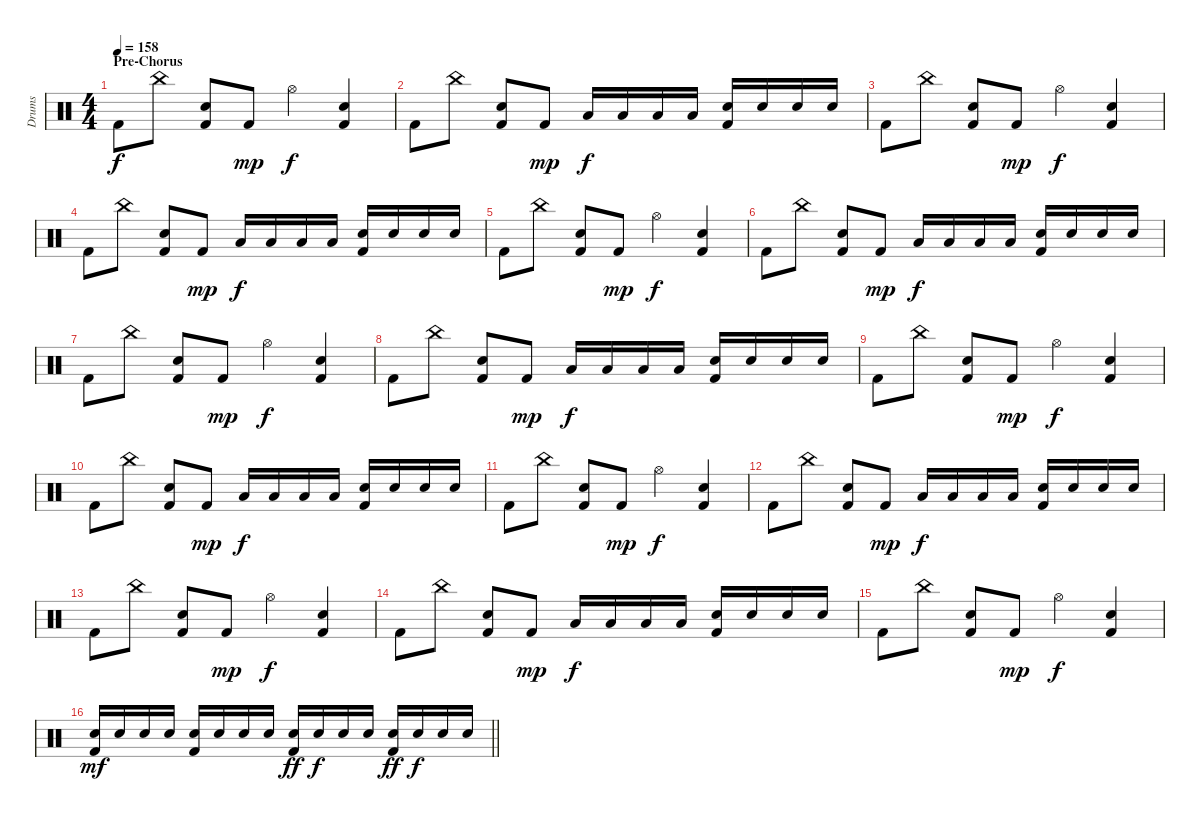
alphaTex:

\track ("Drums" "Drums") {instrument percussion}
\staff {score}
\articulation defaults
\ts (4 4)
\section ("" "Pre-Chorus")
\tempo 158
\clef neutral
\ks c "Kick (hit) 2".8{dy f} "China (hit)".8
("Electric Snare (hit)" "Kick (hit) 2").8 "Kick (hit) 2".8{dy mp} "Hi-Hat (open)".4{dy f} ("Electric Snare (hit)" "Kick (hit) 2").4 |
"Kick (hit) 2".8 "China (hit)".8 ("Electric Snare (hit)" "Kick (hit) 2").8 "Kick (hit) 2".8{dy mp} "Low Tom (hit)".16{dy f} "Low Tom (hit)".16 "Low Tom (hit)".16 "Low Tom (hit)".16 ("Electric Snare (hit)" "Kick (hit) 2").16 "Electric Snare (hit)".16 "Electric Snare (hit)".16 "Electric Snare (hit)".16 |
"Kick (hit) 2".8 "China (hit)".8 ("Electric Snare (hit)" "Kick (hit) 2").8 "Kick (hit) 2".8{dy mp} "Hi-Hat (open)".4{dy f} ("Electric Snare (hit)" "Kick (hit) 2").4 |
"Kick (hit) 2".8 "China (hit)".8 ("Electric Snare (hit)" "Kick (hit) 2").8 "Kick (hit) 2".8{dy mp} "Low Tom (hit)".16{dy f} "Low Tom (hit)".16 "Low Tom (hit)".16 "Low Tom (hit)".16 ("Electric Snare (hit)" "Kick (hit) 2").16 "Electric Snare (hit)".16 "Electric Snare (hit)".16 "Electric Snare (hit)".16 |
"Kick (hit) 2".8 "China (hit)".8 ("Electric Snare (hit)" "Kick (hit) 2").8 "Kick (hit) 2".8{dy mp} "Hi-Hat (open)".4{dy f} ("Electric Snare (hit)" "Kick (hit) 2").4 |
"Kick (hit) 2".8 "China (hit)".8 ("Electric Snare (hit)" "Kick (hit) 2").8 "Kick (hit) 2".8{dy mp} "Low Tom (hit)".16{dy f} "Low Tom (hit)".16 "Low Tom (hit)".16 "Low Tom (hit)".16 ("Electric Snare (hit)" "Kick (hit) 2").16 "Electric Snare (hit)".16 "Electric Snare (hit)".16 "Electric Snare (hit)".16 |
"Kick (hit) 2".8 "China (hit)".8 ("Electric Snare (hit)" "Kick (hit) 2").8 "Kick (hit) 2".8{dy mp} "Hi-Hat (open)".4{dy f} ("Electric Snare (hit)" "Kick (hit) 2").4 |
"Kick (hit) 2".8 "China (hit)".8 ("Electric Snare (hit)" "Kick (hit) 2").8 "Kick (hit) 2".8{dy mp} "Low Tom (hit)".16{dy f} "Low Tom (hit)".16 "Low Tom (hit)".16 "Low Tom (hit)".16 ("Electric Snare (hit)" "Kick (hit) 2").16 "Electric Snare (hit)".16 "Electric Snare (hit)".16 "Electric Snare (hit)".16 |
"Kick (hit) 2".8 "China (hit)".8 ("Electric Snare (hit)" "Kick (hit) 2").8 "Kick (hit) 2".8{dy mp} "Hi-Hat (open)".4{dy f} ("Electric Snare (hit)" "Kick (hit) 2").4 |
"Kick (hit) 2".8 "China (hit)".8 ("Electric Snare (hit)" "Kick (hit) 2").8 "Kick (hit) 2".8{dy mp} "Low Tom (hit)".16{dy f} "Low Tom (hit)".16 "Low Tom (hit)".16 "Low Tom (hit)".16 ("Electric Snare (hit)" "Kick (hit) 2").16 "Electric Snare (hit)".16 "Electric Snare (hit)".16 "Electric Snare (hit)".16 |
"Kick (hit) 2".8 "China (hit)".8 ("Electric Snare (hit)" "Kick (hit) 2").8 "Kick (hit) 2".8{dy mp} "Hi-Hat (open)".4{dy f} ("Electric Snare (hit)" "Kick (hit) 2").4 |
"Kick (hit) 2".8 "China (hit)".8 ("Electric Snare (hit)" "Kick (hit) 2").8 "Kick (hit) 2".8{dy mp} "Low Tom (hit)".16{dy f} "Low Tom (hit)".16 "Low Tom (hit)".16 "Low Tom (hit)".16 ("Electric Snare (hit)" "Kick (hit) 2").16 "Electric Snare (hit)".16 "Electric Snare (hit)".16 "Electric Snare (hit)".16 |
"Kick (hit) 2".8 "China (hit)".8 ("Electric Snare (hit)" "Kick (hit) 2").8 "Kick (hit) 2".8{dy mp} "Hi-Hat (open)".4{dy f} ("Electric Snare (hit)" "Kick (hit) 2").4 |
"Kick (hit) 2".8 "China (hit)".8 ("Electric Snare (hit)" "Kick (hit) 2").8 "Kick (hit) 2".8{dy mp} "Low Tom (hit)".16{dy f} "Low Tom (hit)".16 "Low Tom (hit)".16 "Low Tom (hit)".16 ("Electric Snare (hit)" "Kick (hit) 2").16 "Electric Snare (hit)".16 "Electric Snare (hit)".16 "Electric Snare (hit)".16 |
"Kick (hit) 2".8 "China (hit)".8 ("Electric Snare (hit)" "Kick (hit) 2").8 "Kick (hit) 2".8{dy mp} "Hi-Hat (open)".4{dy f} ("Electric Snare (hit)" "Kick (hit) 2").4 |
\barLineRight lightlight
("Electric Snare (hit)" "Kick (hit) 2").16{dy mf} "Electric Snare (hit)".16 "Electric Snare (hit)".16 "Electric Snare (hit)".16 ("Electric Snare (hit)" "Kick (hit) 2").16 "Electric Snare (hit)".16 "Electric Snare (hit)".16 "Electric Snare (hit)".16 ("Electric Snare (hit)" "Kick (hit) 2").16{dy ff} "Electric Snare (hit)".16{dy f} "Electric Snare (hit)".16 "Electric Snare (hit)".16 ("Electric Snare (hit)" "Kick (hit) 2").16{dy ff} "Electric Snare (hit)".16{dy f} "Electric Snare (hit)".16 "Electric Snare (hit)".16
